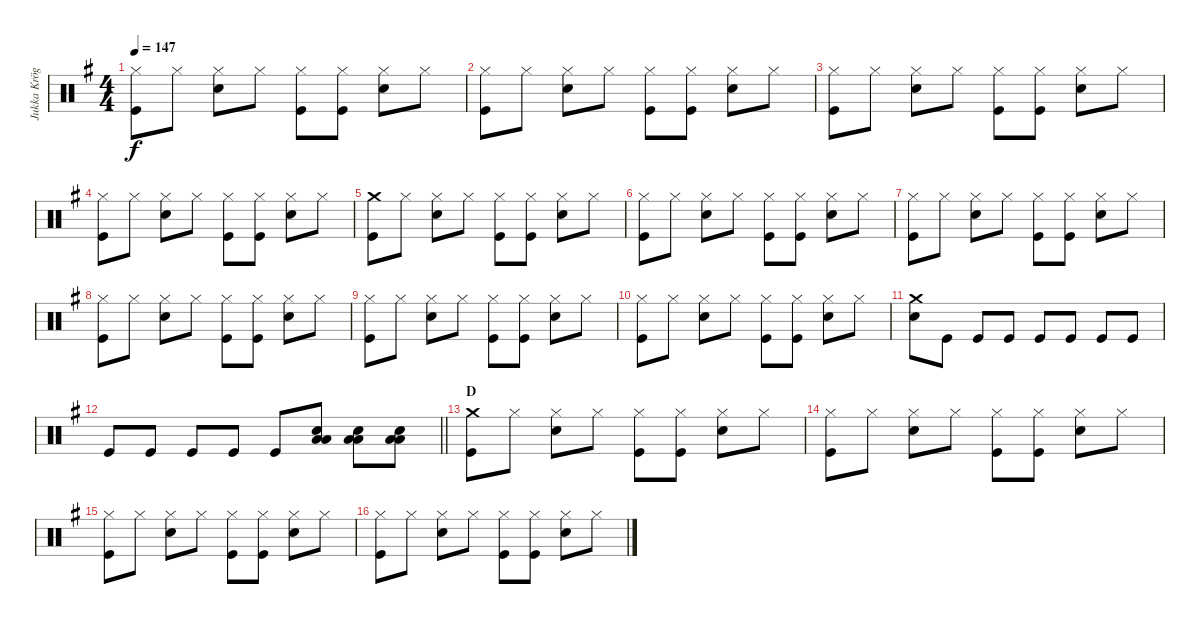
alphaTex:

\track ("Jukka Kröger" "Jukka Krög") {instrument percussion}
\staff {score}
\articulation defaults
\ts (4 4)
\tempo 147
\clef neutral
\ks eminor
("Hi-Hat (closed)" "Kick (hit)").8{dy f} "Hi-Hat (closed)".8 ("Hi-Hat (closed)" "Snare (hit) 2").8 "Hi-Hat (closed)".8 ("Hi-Hat (closed)" "Kick (hit)").8 ("Hi-Hat (closed)" "Kick (hit)").8 ("Hi-Hat (closed)" "Snare (hit) 2").8 "Hi-Hat (closed)".8 |
("Hi-Hat (closed)" "Kick (hit)").8 "Hi-Hat (closed)".8 ("Hi-Hat (closed)" "Snare (hit) 2").8 "Hi-Hat (closed)".8 ("Hi-Hat (closed)" "Kick (hit)").8 ("Hi-Hat (closed)" "Kick (hit)").8 ("Hi-Hat (closed)" "Snare (hit) 2").8 "Hi-Hat (closed)".8 |
("Hi-Hat (closed)" "Kick (hit)").8 "Hi-Hat (closed)".8 ("Hi-Hat (closed)" "Snare (hit) 2").8 "Hi-Hat (closed)".8 ("Hi-Hat (closed)" "Kick (hit)").8 ("Hi-Hat (closed)" "Kick (hit)").8 ("Hi-Hat (closed)" "Snare (hit) 2").8 "Hi-Hat (closed)".8 |
("Hi-Hat (closed)" "Kick (hit)").8 "Hi-Hat (closed)".8 ("Hi-Hat (closed)" "Snare (hit) 2").8 "Hi-Hat (closed)".8 ("Hi-Hat (closed)" "Kick (hit)").8 ("Hi-Hat (closed)" "Kick (hit)").8 ("Hi-Hat (closed)" "Snare (hit) 2").8 "Hi-Hat (closed)".8 |
("Crash medium (hit)" "Kick (hit)").8 "Hi-Hat (closed)".8 ("Hi-Hat (closed)" "Snare (hit) 2").8 "Hi-Hat (closed)".8 ("Hi-Hat (closed)" "Kick (hit)").8 ("Hi-Hat (closed)" "Kick (hit)").8 ("Hi-Hat (closed)" "Snare (hit) 2").8 "Hi-Hat (closed)".8 |
("Hi-Hat (closed)" "Kick (hit)").8 "Hi-Hat (closed)".8 ("Hi-Hat (closed)" "Snare (hit) 2").8 "Hi-Hat (closed)".8 ("Hi-Hat (closed)" "Kick (hit)").8 ("Hi-Hat (closed)" "Kick (hit)").8 ("Hi-Hat (closed)" "Snare (hit) 2").8 "Hi-Hat (closed)".8 |
("Hi-Hat (closed)" "Kick (hit)").8 "Hi-Hat (closed)".8 ("Hi-Hat (closed)" "Snare (hit) 2").8 "Hi-Hat (closed)".8 ("Hi-Hat (closed)" "Kick (hit)").8 ("Hi-Hat (closed)" "Kick (hit)").8 ("Hi-Hat (closed)" "Snare (hit) 2").8 "Hi-Hat (closed)".8 |
("Hi-Hat (closed)" "Kick (hit)").8 "Hi-Hat (closed)".8 ("Hi-Hat (closed)" "Snare (hit) 2").8 "Hi-Hat (closed)".8 ("Hi-Hat (closed)" "Kick (hit)").8 ("Hi-Hat (closed)" "Kick (hit)").8 ("Hi-Hat (closed)" "Snare (hit) 2").8 "Hi-Hat (closed)".8 |
("Hi-Hat (closed)" "Kick (hit)").8 "Hi-Hat (closed)".8 ("Hi-Hat (closed)" "Snare (hit) 2").8 "Hi-Hat (closed)".8 ("Hi-Hat (closed)" "Kick (hit)").8 ("Hi-Hat (closed)" "Kick (hit)").8 ("Hi-Hat (closed)" "Snare (hit) 2").8 "Hi-Hat (closed)".8 |
("Hi-Hat (closed)" "Kick (hit)").8 "Hi-Hat (closed)".8 ("Hi-Hat (closed)" "Snare (hit) 2").8 "Hi-Hat (closed)".8 ("Hi-Hat (closed)" "Kick (hit)").8 ("Hi-Hat (closed)" "Kick (hit)").8 ("Hi-Hat (closed)" "Snare (hit) 2").8 "Hi-Hat (closed)".8 |
("Crash medium (hit)" "Snare (hit) 2").8 "Kick (hit)".8 "Kick (hit)".8 "Kick (hit)".8 "Kick (hit)".8 "Kick (hit)".8 "Kick (hit)".8 "Kick (hit)".8 |
\barLineRight lightlight "Kick (hit)".8 "Kick (hit)".8 "Kick (hit)".8 "Kick (hit)".8 "Kick (hit)".8
("Snare (hit) 2" "Low Tom (hit)" "Low Floor Tom (hit)").8 ("Snare (hit) 2" "Low Tom (hit)" "Low Floor Tom (hit)").8 ("Snare (hit) 2" "Low Tom (hit)" "Low Floor Tom (hit)").8 |
\section ("" "D")
("Crash medium (hit)" "Kick (hit)").8 "Hi-Hat (closed)".8 ("Hi-Hat (closed)" "Snare (hit) 2").8 "Hi-Hat (closed)".8 ("Hi-Hat (closed)" "Kick (hit)").8 ("Hi-Hat (closed)" "Kick (hit)").8 ("Hi-Hat (closed)" "Snare (hit) 2").8 "Hi-Hat (closed)".8 |
("Hi-Hat (closed)" "Kick (hit)").8 "Hi-Hat (closed)".8 ("Hi-Hat (closed)" "Snare (hit) 2").8 "Hi-Hat (closed)".8 ("Hi-Hat (closed)" "Kick (hit)").8 ("Hi-Hat (closed)" "Kick (hit)").8 ("Hi-Hat (closed)" "Snare (hit) 2").8 "Hi-Hat (closed)".8 |
("Hi-Hat (closed)" "Kick (hit)").8 "Hi-Hat (closed)".8 ("Hi-Hat (closed)" "Snare (hit) 2").8 "Hi-Hat (closed)".8 ("Hi-Hat (closed)" "Kick (hit)").8 ("Hi-Hat (closed)" "Kick (hit)").8 ("Hi-Hat (closed)" "Snare (hit) 2").8 "Hi-Hat (closed)".8 |
("Hi-Hat (closed)" "Kick (hit)").8 "Hi-Hat (closed)".8 ("Hi-Hat (closed)" "Snare (hit) 2").8 "Hi-Hat (closed)".8 ("Hi-Hat (closed)" "Kick (hit)").8 ("Hi-Hat (closed)" "Kick (hit)").8 ("Hi-Hat (closed)" "Snare (hit) 2").8 "Hi-Hat (closed)".8
